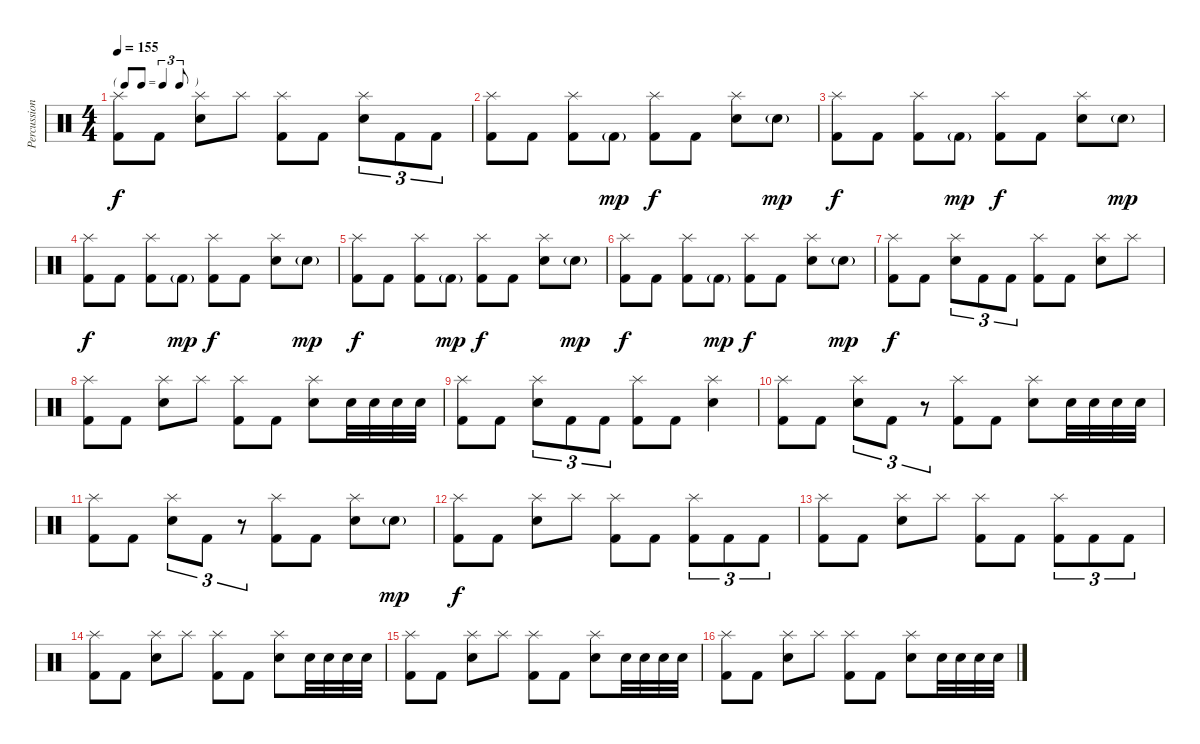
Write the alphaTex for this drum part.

\track ("Percussion" "Percussion") {instrument percussion}
\staff {score}
\articulation defaults
\ts (4 4)
\tf triplet8th
\tempo 155
\clef neutral
\ks c
("Kick (hit) 2" "Splash (hit)").8{dy f} "Kick (hit) 2".8 ("Snare (hit) 2" "Splash (hit)").8 "Splash (hit)".8 ("Kick (hit) 2" "Splash (hit)").8 "Kick (hit) 2".8 ("Snare (hit) 2" "Splash (hit)").8{tu (3 2)} "Kick (hit) 2".8{tu (3 2)} "Kick (hit) 2".8{tu (3 2)} |
("Kick (hit) 2" "Splash (hit)").8 "Kick (hit) 2".8 ("Kick (hit) 2" "Splash (hit)").8 "Kick (hit) 2"{g}.8{dy mp} ("Kick (hit) 2" "Splash (hit)").8{dy f} "Kick (hit) 2".8 ("Snare (hit) 2" "Splash (hit)").8 "Snare (hit) 2"{g}.8{dy mp} |
("Kick (hit) 2" "Splash (hit)").8{dy f} "Kick (hit) 2".8 ("Kick (hit) 2" "Splash (hit)").8 "Kick (hit) 2"{g}.8{dy mp} ("Kick (hit) 2" "Splash (hit)").8{dy f} "Kick (hit) 2".8 ("Snare (hit) 2" "Splash (hit)").8 "Snare (hit) 2"{g}.8{dy mp} |
("Kick (hit) 2" "Splash (hit)").8{dy f} "Kick (hit) 2".8 ("Kick (hit) 2" "Splash (hit)").8 "Kick (hit) 2"{g}.8{dy mp} ("Kick (hit) 2" "Splash (hit)").8{dy f} "Kick (hit) 2".8 ("Snare (hit) 2" "Splash (hit)").8 "Snare (hit) 2"{g}.8{dy mp} |
("Kick (hit) 2" "Splash (hit)").8{dy f} "Kick (hit) 2".8 ("Kick (hit) 2" "Splash (hit)").8 "Kick (hit) 2"{g}.8{dy mp} ("Kick (hit) 2" "Splash (hit)").8{dy f} "Kick (hit) 2".8 ("Snare (hit) 2" "Splash (hit)").8 "Snare (hit) 2"{g}.8{dy mp} |
("Kick (hit) 2" "Splash (hit)").8{dy f} "Kick (hit) 2".8 ("Kick (hit) 2" "Splash (hit)").8 "Kick (hit) 2"{g}.8{dy mp} ("Kick (hit) 2" "Splash (hit)").8{dy f} "Kick (hit) 2".8 ("Snare (hit) 2" "Splash (hit)").8 "Snare (hit) 2"{g}.8{dy mp} |
("Kick (hit) 2" "Splash (hit)").8{dy f} "Kick (hit) 2".8 ("Snare (hit) 2" "Splash (hit)").8{tu (3 2)} "Kick (hit) 2".8{tu (3 2)} "Kick (hit) 2".8{tu (3 2)} ("Kick (hit) 2" "Splash (hit)").8 "Kick (hit) 2".8 ("Snare (hit) 2" "Splash (hit)").8 "Splash (hit)".8 |
("Kick (hit) 2" "Splash (hit)").8 "Kick (hit) 2".8 ("Snare (hit) 2" "Splash (hit)").8 "Splash (hit)".8 ("Kick (hit) 2" "Splash (hit)").8 "Kick (hit) 2".8 ("Snare (hit) 2" "Splash (hit)").8 "Snare (hit) 2".32 "Snare (hit) 2".32 "Snare (hit) 2".32 "Snare (hit) 2".32 |
("Kick (hit) 2" "Splash (hit)").8 "Kick (hit) 2".8 ("Snare (hit) 2" "Splash (hit)").8{tu (3 2)} "Kick (hit) 2".8{tu (3 2)} "Kick (hit) 2".8{tu (3 2)} ("Kick (hit) 2" "Splash (hit)").8 "Kick (hit) 2".8 ("Snare (hit) 2" "Splash (hit)").4 |
("Kick (hit) 2" "Splash (hit)").8 "Kick (hit) 2".8 ("Snare (hit) 2" "Splash (hit)").8{tu (3 2)} "Kick (hit) 2".8{tu (3 2)} r.8{tu (3 2)} ("Kick (hit) 2" "Splash (hit)").8 "Kick (hit) 2".8 ("Snare (hit) 2" "Splash (hit)").8 "Snare (hit) 2".32 "Snare (hit) 2".32 "Snare (hit) 2".32 "Snare (hit) 2".32 |
("Kick (hit) 2" "Splash (hit)").8 "Kick (hit) 2".8 ("Snare (hit) 2" "Splash (hit)").8{tu (3 2)} "Kick (hit) 2".8{tu (3 2)} r.8{tu (3 2)} ("Kick (hit) 2" "Splash (hit)").8 "Kick (hit) 2".8 ("Snare (hit) 2" "Splash (hit)").8 "Snare (hit) 2"{g}.8{dy mp} |
("Kick (hit) 2" "Splash (hit)").8{dy f} "Kick (hit) 2".8 ("Snare (hit) 2" "Splash (hit)").8 "Splash (hit)".8 ("Kick (hit) 2" "Splash (hit)").8 "Kick (hit) 2".8 ("Kick (hit) 2" "Splash (hit)").8{tu (3 2)} "Kick (hit) 2".8{tu (3 2)} "Kick (hit) 2".8{tu (3 2)} |
("Kick (hit) 2" "Splash (hit)").8 "Kick (hit) 2".8 ("Snare (hit) 2" "Splash (hit)").8 "Splash (hit)".8 ("Kick (hit) 2" "Splash (hit)").8 "Kick (hit) 2".8 ("Kick (hit) 2" "Splash (hit)").8{tu (3 2)} "Kick (hit) 2".8{tu (3 2)} "Kick (hit) 2".8{tu (3 2)} |
("Kick (hit) 2" "Splash (hit)").8 "Kick (hit) 2".8 ("Snare (hit) 2" "Splash (hit)").8 "Splash (hit)".8 ("Kick (hit) 2" "Splash (hit)").8 "Kick (hit) 2".8 ("Snare (hit) 2" "Splash (hit)").8 "Snare (hit) 2".32 "Snare (hit) 2".32 "Snare (hit) 2".32 "Snare (hit) 2".32 |
("Kick (hit) 2" "Splash (hit)").8 "Kick (hit) 2".8 ("Snare (hit) 2" "Splash (hit)").8 "Splash (hit)".8 ("Kick (hit) 2" "Splash (hit)").8 "Kick (hit) 2".8 ("Snare (hit) 2" "Splash (hit)").8 "Snare (hit) 2".32 "Snare (hit) 2".32 "Snare (hit) 2".32 "Snare (hit) 2".32 |
("Kick (hit) 2" "Splash (hit)").8 "Kick (hit) 2".8 ("Snare (hit) 2" "Splash (hit)").8 "Splash (hit)".8 ("Kick (hit) 2" "Splash (hit)").8 "Kick (hit) 2".8 ("Snare (hit) 2" "Splash (hit)").8 "Snare (hit) 2".32 "Snare (hit) 2".32 "Snare (hit) 2".32 "Snare (hit) 2".32
